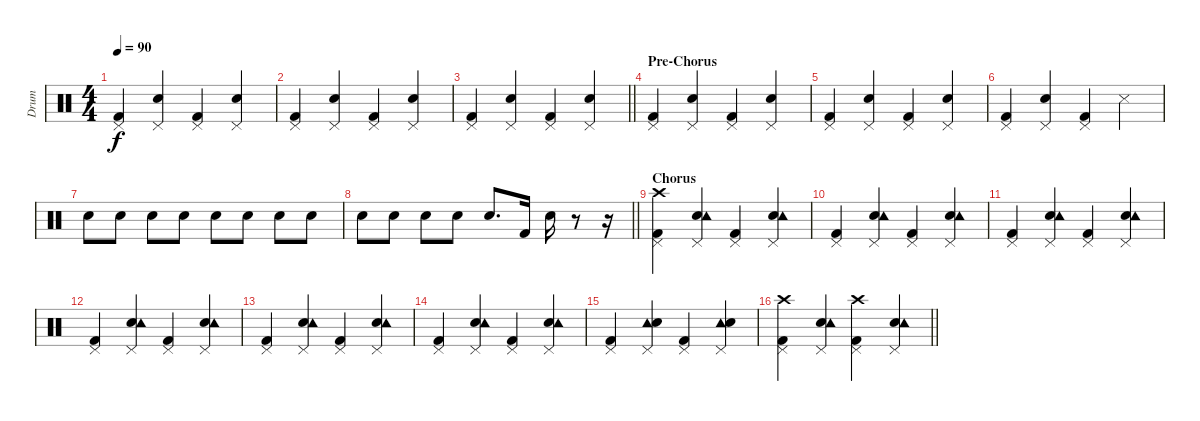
\track ("Drum" "Drum") {instrument percussion}
\staff {score}
\articulation defaults
\ts (4 4)
\tempo 90
\clef neutral
\ks c
("Pedal Hi-Hat (hit)" "Kick (hit) 2").4{dy f} ("Pedal Hi-Hat (hit)" "Electric Snare (hit)").4 ("Pedal Hi-Hat (hit)" "Kick (hit) 2").4 ("Pedal Hi-Hat (hit)" "Electric Snare (hit)").4 |
("Pedal Hi-Hat (hit)" "Kick (hit) 2").4 ("Pedal Hi-Hat (hit)" "Electric Snare (hit)").4 ("Pedal Hi-Hat (hit)" "Kick (hit) 2").4 ("Pedal Hi-Hat (hit)" "Electric Snare (hit)").4 |
\barLineRight lightlight
("Pedal Hi-Hat (hit)" "Kick (hit) 2").4 ("Pedal Hi-Hat (hit)" "Electric Snare (hit)").4 ("Pedal Hi-Hat (hit)" "Kick (hit) 2").4 ("Pedal Hi-Hat (hit)" "Electric Snare (hit)").4 |
\section ("" "Pre-Chorus")
("Pedal Hi-Hat (hit)" "Kick (hit) 2").4 ("Pedal Hi-Hat (hit)" "Electric Snare (hit)").4 ("Pedal Hi-Hat (hit)" "Kick (hit) 2").4 ("Pedal Hi-Hat (hit)" "Electric Snare (hit)").4 |
("Pedal Hi-Hat (hit)" "Kick (hit) 2").4 ("Pedal Hi-Hat (hit)" "Electric Snare (hit)").4 ("Pedal Hi-Hat (hit)" "Kick (hit) 2").4 ("Pedal Hi-Hat (hit)" "Electric Snare (hit)").4 |
("Pedal Hi-Hat (hit)" "Kick (hit) 2").4 ("Pedal Hi-Hat (hit)" "Electric Snare (hit)").4 ("Pedal Hi-Hat (hit)" "Kick (hit) 2").4 "Snare (side stick) 3".4{volume 3} |
"Electric Snare (hit)".8{volume 11} "Electric Snare (hit)".8 "Electric Snare (hit)".8 "Electric Snare (hit)".8 "Electric Snare (hit)".8 "Electric Snare (hit)".8 "Electric Snare (hit)".8 "Electric Snare (hit)".8 |
\barLineRight lightlight "Electric Snare (hit)".8 "Electric Snare (hit)".8 "Electric Snare (hit)".8 "Electric Snare (hit)".8 "Electric Snare (hit)".8{d} "Kick (hit) 2".16 "Electric Snare (hit)".16
r.8 r.16 |
\section ("" "Chorus")
("Pedal Hi-Hat (hit)" "Kick (hit) 2" "Crash high (hit)").4 ("Pedal Hi-Hat (hit)" "Electric Snare (hit)" "Tambourine (hit)").4 ("Pedal Hi-Hat (hit)" "Kick (hit) 2").4 ("Pedal Hi-Hat (hit)" "Electric Snare (hit)" "Tambourine (hit)").4 |
("Pedal Hi-Hat (hit)" "Kick (hit) 2").4 ("Pedal Hi-Hat (hit)" "Electric Snare (hit)" "Tambourine (hit)").4 ("Pedal Hi-Hat (hit)" "Kick (hit) 2").4 ("Pedal Hi-Hat (hit)" "Electric Snare (hit)" "Tambourine (hit)").4 |
("Pedal Hi-Hat (hit)" "Kick (hit) 2").4 ("Pedal Hi-Hat (hit)" "Electric Snare (hit)" "Tambourine (hit)").4 ("Pedal Hi-Hat (hit)" "Kick (hit) 2").4 ("Pedal Hi-Hat (hit)" "Electric Snare (hit)" "Tambourine (hit)").4 |
("Pedal Hi-Hat (hit)" "Kick (hit) 2").4 ("Pedal Hi-Hat (hit)" "Electric Snare (hit)" "Tambourine (hit)").4 ("Pedal Hi-Hat (hit)" "Kick (hit) 2").4 ("Pedal Hi-Hat (hit)" "Electric Snare (hit)" "Tambourine (hit)").4 |
("Pedal Hi-Hat (hit)" "Kick (hit) 2").4 ("Pedal Hi-Hat (hit)" "Electric Snare (hit)" "Tambourine (hit)").4 ("Pedal Hi-Hat (hit)" "Kick (hit) 2").4 ("Pedal Hi-Hat (hit)" "Electric Snare (hit)" "Tambourine (hit)").4 |
("Pedal Hi-Hat (hit)" "Kick (hit) 2").4 ("Pedal Hi-Hat (hit)" "Electric Snare (hit)" "Tambourine (hit)").4 ("Pedal Hi-Hat (hit)" "Kick (hit) 2").4 ("Pedal Hi-Hat (hit)" "Electric Snare (hit)" "Tambourine (hit)").4 |
("Pedal Hi-Hat (hit)" "Kick (hit) 2").4 ("Pedal Hi-Hat (hit)" "Tambourine (hit)" "Electric Snare (hit)").4 ("Pedal Hi-Hat (hit)" "Kick (hit) 2").4 ("Pedal Hi-Hat (hit)" "Tambourine (hit)" "Electric Snare (hit)").4 |
\barLineRight lightlight
("Pedal Hi-Hat (hit)" "Kick (hit) 2" "Crash high (hit)").4 ("Pedal Hi-Hat (hit)" "Electric Snare (hit)" "Tambourine (hit)").4 ("Pedal Hi-Hat (hit)" "Kick (hit) 2" "Crash high (hit)").4 ("Pedal Hi-Hat (hit)" "Electric Snare (hit)" "Tambourine (hit)").4
